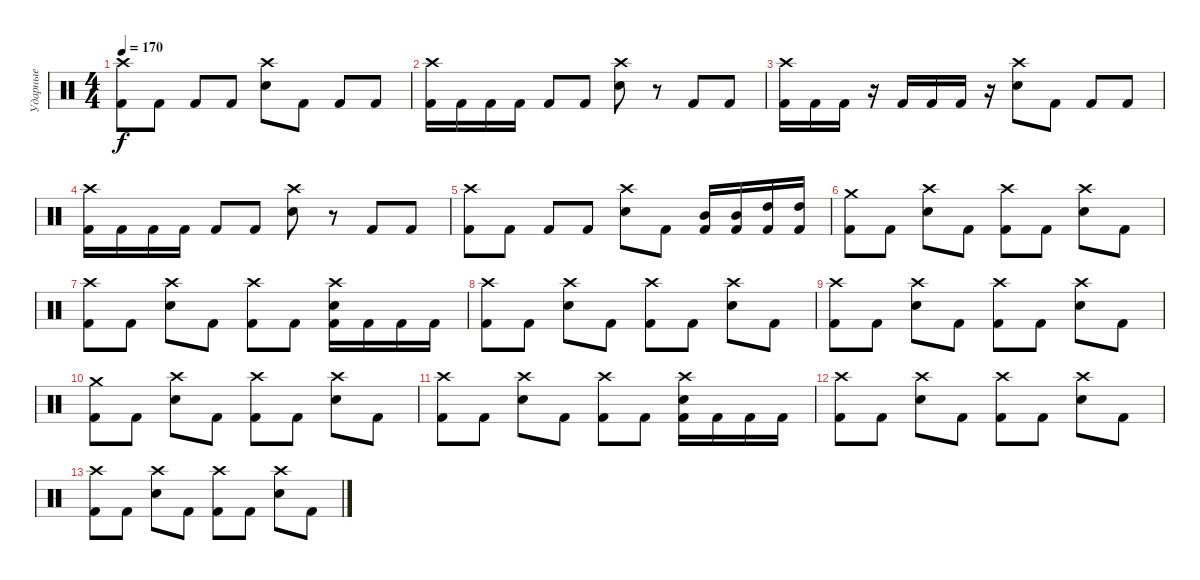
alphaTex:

\track ("Ударные" "Ударные") {instrument percussion}
\staff {score}
\articulation defaults
\ts (4 4)
\tempo 170
\clef neutral
\ks c
("Crash high (hit)" "Kick (hit) 2").8{dy f} "Kick (hit) 2".8 "Kick (hit) 2".8 "Kick (hit) 2".8 ("Crash high (hit)" "Electric Snare (hit)").8 "Kick (hit) 2".8 "Kick (hit) 2".8 "Kick (hit) 2".8 |
("Crash high (hit)" "Kick (hit) 2").16 "Kick (hit) 2".16 "Kick (hit) 2".16 "Kick (hit) 2".16 "Kick (hit) 2".8 "Kick (hit) 2".8 ("Crash high (hit)" "Electric Snare (hit)").8 r.8 "Kick (hit) 2".8 "Kick (hit) 2".8 |
("Crash high (hit)" "Kick (hit) 2").16 "Kick (hit) 2".16 "Kick (hit) 2".16 r.16 "Kick (hit) 2".16 "Kick (hit) 2".16 "Kick (hit) 2".16 r.16 ("Crash high (hit)" "Electric Snare (hit)").8 "Kick (hit) 2".8 "Kick (hit) 2".8 "Kick (hit) 2".8 |
("Crash high (hit)" "Kick (hit) 2").16 "Kick (hit) 2".16 "Kick (hit) 2".16 "Kick (hit) 2".16 "Kick (hit) 2".8 "Kick (hit) 2".8 ("Crash high (hit)" "Electric Snare (hit)").8 r.8 "Kick (hit) 2".8 "Kick (hit) 2".8 |
("Crash high (hit)" "Kick (hit) 2").8 "Kick (hit) 2".8 "Kick (hit) 2".8 "Kick (hit) 2".8 ("Crash high (hit)" "Electric Snare (hit)").8 "Kick (hit) 2".8 ("Mid Tom (hit)" "Kick (hit) 2").16 ("Mid Tom (hit)" "Kick (hit) 2").16 ("High Tom (hit)" "Kick (hit) 2").16 ("High Tom (hit)" "Kick (hit) 2").16 |
("Crash medium (hit)" "Kick (hit) 2").8 "Kick (hit) 2".8 ("Crash high (hit)" "Electric Snare (hit)").8 "Kick (hit) 2".8 ("Crash high (hit)" "Kick (hit) 2").8 "Kick (hit) 2".8 ("Crash high (hit)" "Electric Snare (hit)").8 "Kick (hit) 2".8 |
("Crash high (hit)" "Kick (hit) 2").8 "Kick (hit) 2".8 ("Crash high (hit)" "Electric Snare (hit)").8 "Kick (hit) 2".8 ("Crash high (hit)" "Kick (hit) 2").8 "Kick (hit) 2".8 ("Crash high (hit)" "Electric Snare (hit)" "Kick (hit) 2").16 "Kick (hit) 2".16 "Kick (hit) 2".16 "Kick (hit) 2".16 |
("Crash high (hit)" "Kick (hit) 2").8 "Kick (hit) 2".8 ("Crash high (hit)" "Electric Snare (hit)").8 "Kick (hit) 2".8 ("Crash high (hit)" "Kick (hit) 2").8 "Kick (hit) 2".8 ("Crash high (hit)" "Electric Snare (hit)").8 "Kick (hit) 2".8 |
("Crash high (hit)" "Kick (hit) 2").8 "Kick (hit) 2".8 ("Crash high (hit)" "Electric Snare (hit)").8 "Kick (hit) 2".8 ("Crash high (hit)" "Kick (hit) 2").8 "Kick (hit) 2".8 ("Crash high (hit)" "Electric Snare (hit)").8 "Kick (hit) 2".8 |
("Crash medium (hit)" "Kick (hit) 2").8 "Kick (hit) 2".8 ("Crash high (hit)" "Electric Snare (hit)").8 "Kick (hit) 2".8 ("Crash high (hit)" "Kick (hit) 2").8 "Kick (hit) 2".8 ("Crash high (hit)" "Electric Snare (hit)").8 "Kick (hit) 2".8 |
("Crash high (hit)" "Kick (hit) 2").8 "Kick (hit) 2".8 ("Crash high (hit)" "Electric Snare (hit)").8 "Kick (hit) 2".8 ("Crash high (hit)" "Kick (hit) 2").8 "Kick (hit) 2".8 ("Crash high (hit)" "Electric Snare (hit)" "Kick (hit) 2").16 "Kick (hit) 2".16 "Kick (hit) 2".16 "Kick (hit) 2".16 |
("Crash high (hit)" "Kick (hit) 2").8 "Kick (hit) 2".8 ("Crash high (hit)" "Electric Snare (hit)").8 "Kick (hit) 2".8 ("Crash high (hit)" "Kick (hit) 2").8 "Kick (hit) 2".8 ("Crash high (hit)" "Electric Snare (hit)").8 "Kick (hit) 2".8 |
("Crash high (hit)" "Kick (hit) 2").8 "Kick (hit) 2".8 ("Crash high (hit)" "Electric Snare (hit)").8 "Kick (hit) 2".8 ("Crash high (hit)" "Kick (hit) 2").8 "Kick (hit) 2".8 ("Crash high (hit)" "Electric Snare (hit)").8 "Kick (hit) 2".8
